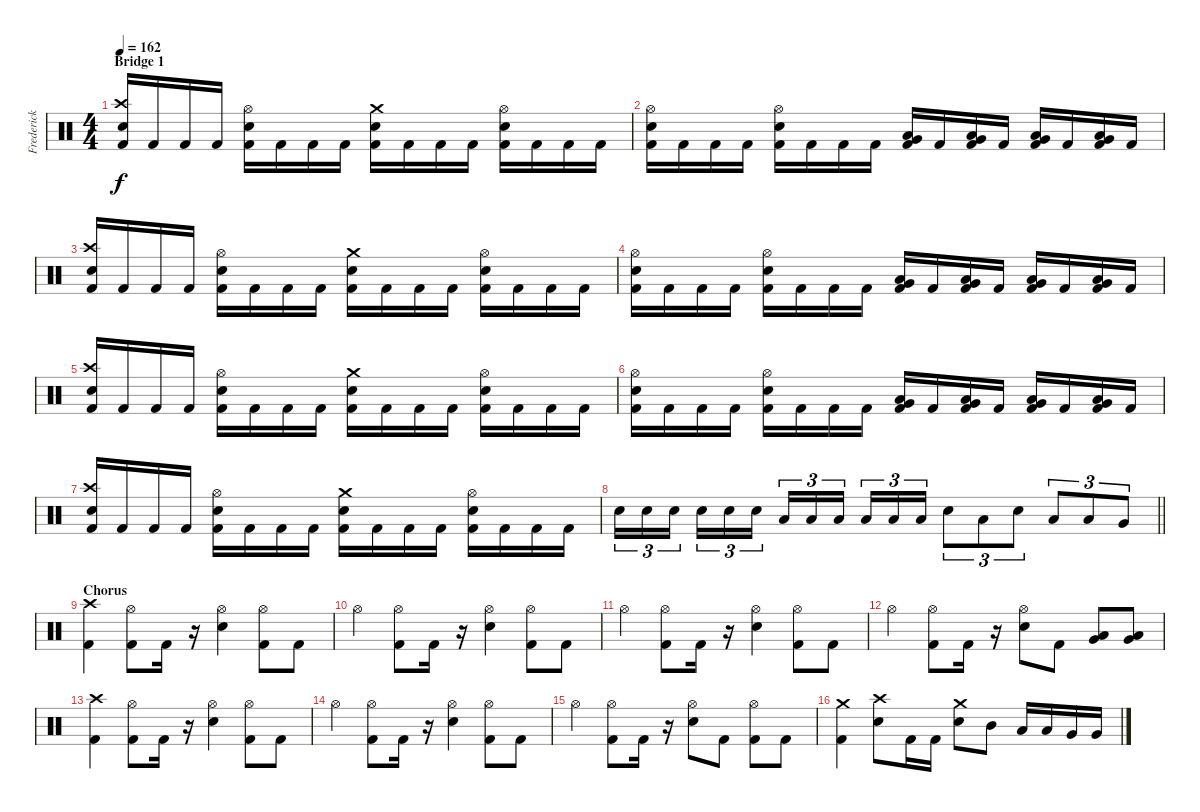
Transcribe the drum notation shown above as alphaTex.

\track ("Frederick Ehmke" "Frederick ") {instrument percussion}
\staff {score}
\articulation defaults
\ts (4 4)
\section ("" "Bridge 1")
\tempo 162
\clef neutral
\ks c
("Electric Snare (hit)" "Crash high (hit)" "Kick (hit) 2").16{dy f} "Kick (hit) 2".16 "Kick (hit) 2".16 "Kick (hit) 2".16 ("Electric Snare (hit)" "Hi-Hat (open)" "Kick (hit) 2").16 "Kick (hit) 2".16 "Kick (hit) 2".16 "Kick (hit) 2".16 ("Electric Snare (hit)" "Crash medium (hit)" "Kick (hit) 2").16 "Kick (hit) 2".16 "Kick (hit) 2".16 "Kick (hit) 2".16 ("Electric Snare (hit)" "Hi-Hat (open)" "Kick (hit) 2").16 "Kick (hit) 2".16 "Kick (hit) 2".16 "Kick (hit) 2".16 |
("Electric Snare (hit)" "Hi-Hat (open)" "Kick (hit) 2").16 "Kick (hit) 2".16 "Kick (hit) 2".16 "Kick (hit) 2".16 ("Electric Snare (hit)" "Hi-Hat (open)" "Kick (hit) 2").16 "Kick (hit) 2".16 "Kick (hit) 2".16 "Kick (hit) 2".16 ("Low Tom (hit)" "Very Low Tom (hit)" "Kick (hit) 2").16 "Kick (hit) 2".16 ("Low Tom (hit)" "Very Low Tom (hit)" "Kick (hit) 2").16 "Kick (hit) 2".16 ("Very Low Tom (hit)" "Low Floor Tom (hit)" "Kick (hit) 2").16 "Kick (hit) 2".16 ("Very Low Tom (hit)" "Low Floor Tom (hit)" "Kick (hit) 2").16 "Kick (hit) 2".16 |
("Electric Snare (hit)" "Crash high (hit)" "Kick (hit) 2").16 "Kick (hit) 2".16 "Kick (hit) 2".16 "Kick (hit) 2".16 ("Electric Snare (hit)" "Hi-Hat (open)" "Kick (hit) 2").16 "Kick (hit) 2".16 "Kick (hit) 2".16 "Kick (hit) 2".16 ("Electric Snare (hit)" "Crash medium (hit)" "Kick (hit) 2").16 "Kick (hit) 2".16 "Kick (hit) 2".16 "Kick (hit) 2".16 ("Electric Snare (hit)" "Hi-Hat (open)" "Kick (hit) 2").16 "Kick (hit) 2".16 "Kick (hit) 2".16 "Kick (hit) 2".16 |
("Electric Snare (hit)" "Hi-Hat (open)" "Kick (hit) 2").16 "Kick (hit) 2".16 "Kick (hit) 2".16 "Kick (hit) 2".16 ("Electric Snare (hit)" "Hi-Hat (open)" "Kick (hit) 2").16 "Kick (hit) 2".16 "Kick (hit) 2".16 "Kick (hit) 2".16 ("Low Tom (hit)" "Very Low Tom (hit)" "Kick (hit) 2").16 "Kick (hit) 2".16 ("Low Tom (hit)" "Very Low Tom (hit)" "Kick (hit) 2").16 "Kick (hit) 2".16 ("Very Low Tom (hit)" "Low Floor Tom (hit)" "Kick (hit) 2").16 "Kick (hit) 2".16 ("Very Low Tom (hit)" "Low Floor Tom (hit)" "Kick (hit) 2").16 "Kick (hit) 2".16 |
("Electric Snare (hit)" "Crash high (hit)" "Kick (hit) 2").16 "Kick (hit) 2".16 "Kick (hit) 2".16 "Kick (hit) 2".16 ("Electric Snare (hit)" "Hi-Hat (open)" "Kick (hit) 2").16 "Kick (hit) 2".16 "Kick (hit) 2".16 "Kick (hit) 2".16 ("Electric Snare (hit)" "Crash medium (hit)" "Kick (hit) 2").16 "Kick (hit) 2".16 "Kick (hit) 2".16 "Kick (hit) 2".16 ("Electric Snare (hit)" "Hi-Hat (open)" "Kick (hit) 2").16 "Kick (hit) 2".16 "Kick (hit) 2".16 "Kick (hit) 2".16 |
("Electric Snare (hit)" "Hi-Hat (open)" "Kick (hit) 2").16 "Kick (hit) 2".16 "Kick (hit) 2".16 "Kick (hit) 2".16 ("Electric Snare (hit)" "Hi-Hat (open)" "Kick (hit) 2").16 "Kick (hit) 2".16 "Kick (hit) 2".16 "Kick (hit) 2".16 ("Low Tom (hit)" "Very Low Tom (hit)" "Kick (hit) 2").16 "Kick (hit) 2".16 ("Low Tom (hit)" "Very Low Tom (hit)" "Kick (hit) 2").16 "Kick (hit) 2".16 ("Very Low Tom (hit)" "Low Floor Tom (hit)" "Kick (hit) 2").16 "Kick (hit) 2".16 ("Very Low Tom (hit)" "Low Floor Tom (hit)" "Kick (hit) 2").16 "Kick (hit) 2".16 |
("Electric Snare (hit)" "Crash high (hit)" "Kick (hit) 2").16 "Kick (hit) 2".16 "Kick (hit) 2".16 "Kick (hit) 2".16 ("Electric Snare (hit)" "Hi-Hat (open)" "Kick (hit) 2").16 "Kick (hit) 2".16 "Kick (hit) 2".16 "Kick (hit) 2".16 ("Electric Snare (hit)" "Crash medium (hit)" "Kick (hit) 2").16 "Kick (hit) 2".16 "Kick (hit) 2".16 "Kick (hit) 2".16 ("Electric Snare (hit)" "Hi-Hat (open)" "Kick (hit) 2").16 "Kick (hit) 2".16 "Kick (hit) 2".16 "Kick (hit) 2".16 |
\barLineRight lightlight "Electric Snare (hit)".16{tu (3 2)} "Electric Snare (hit)".16{tu (3 2)} "Electric Snare (hit)".16{tu (3 2) beam splitsecondary} "Electric Snare (hit)".16{tu (3 2)} "Electric Snare (hit)".16{tu (3 2)} "Electric Snare (hit)".16{tu (3 2)} "Low Tom (hit)".16{tu (3 2)} "Low Tom (hit)".16{tu (3 2)} "Low Tom (hit)".16{tu (3 2) beam splitsecondary} "Low Tom (hit)".16{tu (3 2)} "Low Tom (hit)".16{tu (3 2)} "Low Tom (hit)".16{tu (3 2)} "Electric Snare (hit)".8{tu (3 2)} "Low Tom (hit)".8{tu (3 2)} "Electric Snare (hit)".8{tu (3 2)} "Low Tom (hit)".8{tu (3 2)} "Low Tom (hit)".8{tu (3 2)} "Very Low Tom (hit)".8{tu (3 2)}
|
\section ("" "Chorus")
("Crash high (hit)" "Kick (hit) 2").4 ("Hi-Hat (open)" "Kick (hit) 2").8 "Kick (hit) 2".16 r.16 ("Electric Snare (hit)" "Hi-Hat (open)").4 ("Hi-Hat (open)" "Kick (hit) 2").8 "Kick (hit) 2".8 |
"Hi-Hat (open)".4 ("Hi-Hat (open)" "Kick (hit) 2").8 "Kick (hit) 2".16 r.16 ("Electric Snare (hit)" "Hi-Hat (open)").4 ("Hi-Hat (open)" "Kick (hit) 2").8 "Kick (hit) 2".8 |
"Hi-Hat (open)".4 ("Hi-Hat (open)" "Kick (hit) 2").8 "Kick (hit) 2".16 r.16 ("Electric Snare (hit)" "Hi-Hat (open)").4 ("Hi-Hat (open)" "Kick (hit) 2").8 "Kick (hit) 2".8 |
"Hi-Hat (open)".4 ("Hi-Hat (open)" "Kick (hit) 2").8 "Kick (hit) 2".16 r.16 ("Electric Snare (hit)" "Hi-Hat (open)").8 "Kick (hit) 2".8 ("Very Low Tom (hit)" "Low Floor Tom (hit)").8 ("Very Low Tom (hit)" "Low Floor Tom (hit)").8 |
("Crash high (hit)" "Kick (hit) 2").4 ("Hi-Hat (open)" "Kick (hit) 2").8 "Kick (hit) 2".16 r.16 ("Electric Snare (hit)" "Hi-Hat (open)").4 ("Hi-Hat (open)" "Kick (hit) 2").8 "Kick (hit) 2".8 |
"Hi-Hat (open)".4 ("Hi-Hat (open)" "Kick (hit) 2").8 "Kick (hit) 2".16 r.16 ("Electric Snare (hit)" "Hi-Hat (open)").4 ("Hi-Hat (open)" "Kick (hit) 2").8 "Kick (hit) 2".8 |
"Hi-Hat (open)".4 ("Hi-Hat (open)" "Kick (hit) 2").8 "Kick (hit) 2".16 r.16 ("Electric Snare (hit)" "Hi-Hat (open)").8 "Kick (hit) 2".8 ("Hi-Hat (open)" "Kick (hit) 2").8 "Kick (hit) 2".8 |
("Crash medium (hit)" "Kick (hit) 2").4 ("Electric Snare (hit)" "Crash high (hit)").8 "Kick (hit) 2".16 "Kick (hit) 2".16 ("Electric Snare (hit)" "Crash medium (hit)").8 "Mid Tom (hit)".8 "Low Tom (hit)".16 "Low Tom (hit)".16 "Very Low Tom (hit)".16 "Very Low Tom (hit)".16
